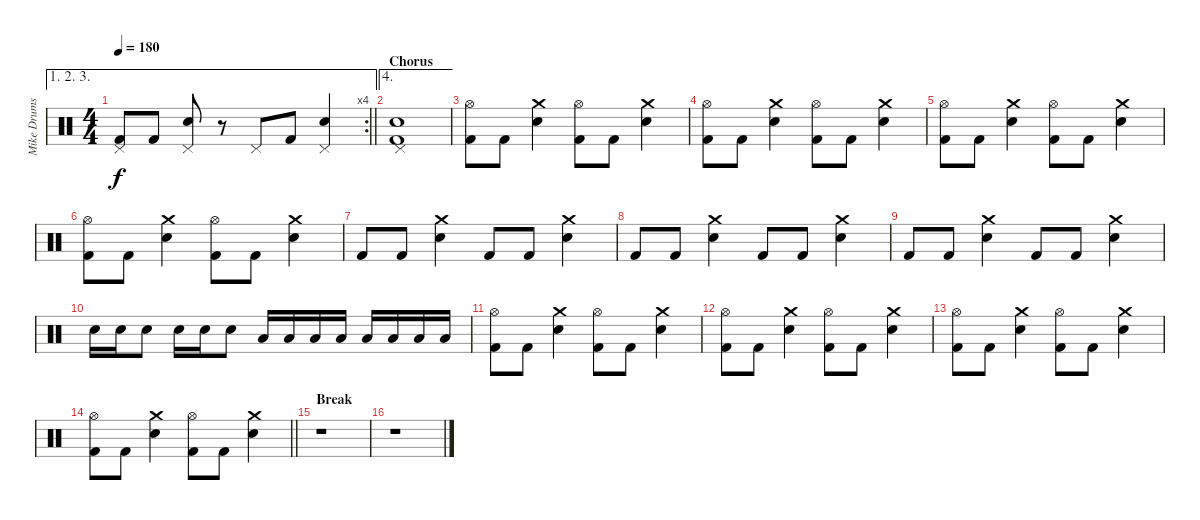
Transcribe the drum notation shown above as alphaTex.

\track ("Mike Drums" "Mike Drums") {instrument percussion}
\staff {score}
\articulation defaults
\ae (1 2 3)
\rc 4
\ts (4 4)
\tempo 180
\clef neutral
\barLineRight lightlight
\ks c
("Pedal Hi-Hat (hit)" "Kick (hit) 2").8{dy f} "Kick (hit) 2".8 ("Pedal Hi-Hat (hit)" "Snare (hit) 2").8 r.8 "Pedal Hi-Hat (hit)".8 "Kick (hit) 2".8 ("Pedal Hi-Hat (hit)" "Snare (hit) 2").4 |
\ae 4
\section ("" "Chorus")
("Pedal Hi-Hat (hit)" "Snare (hit) 2" "Kick (hit) 2").1 |
("Hi-Hat (open)" "Kick (hit) 2").8 "Kick (hit) 2".8 ("Crash medium (hit)" "Snare (hit) 2").4 ("Hi-Hat (open)" "Kick (hit) 2").8 "Kick (hit) 2".8 ("Crash medium (hit)" "Snare (hit) 2").4 |
("Hi-Hat (open)" "Kick (hit) 2").8 "Kick (hit) 2".8 ("Crash medium (hit)" "Snare (hit) 2").4 ("Hi-Hat (open)" "Kick (hit) 2").8 "Kick (hit) 2".8 ("Crash medium (hit)" "Snare (hit) 2").4 |
("Hi-Hat (open)" "Kick (hit) 2").8 "Kick (hit) 2".8 ("Crash medium (hit)" "Snare (hit) 2").4 ("Hi-Hat (open)" "Kick (hit) 2").8 "Kick (hit) 2".8 ("Crash medium (hit)" "Snare (hit) 2").4 |
("Hi-Hat (open)" "Kick (hit) 2").8 "Kick (hit) 2".8 ("Crash medium (hit)" "Snare (hit) 2").4 ("Hi-Hat (open)" "Kick (hit) 2").8 "Kick (hit) 2".8 ("Crash medium (hit)" "Snare (hit) 2").4 |
"Kick (hit) 2".8 "Kick (hit) 2".8 ("Crash medium (hit)" "Snare (hit) 2").4 "Kick (hit) 2".8 "Kick (hit) 2".8 ("Crash medium (hit)" "Snare (hit) 2").4 |
"Kick (hit) 2".8 "Kick (hit) 2".8 ("Crash medium (hit)" "Snare (hit) 2").4 "Kick (hit) 2".8 "Kick (hit) 2".8 ("Crash medium (hit)" "Snare (hit) 2").4 |
"Kick (hit) 2".8 "Kick (hit) 2".8 ("Crash medium (hit)" "Snare (hit) 2").4 "Kick (hit) 2".8 "Kick (hit) 2".8 ("Crash medium (hit)" "Snare (hit) 2").4 |
"Snare (hit) 2".16 "Snare (hit) 2".16 "Snare (hit) 2".8 "Snare (hit) 2".16 "Snare (hit) 2".16 "Snare (hit) 2".8 "Low Tom (hit)".16 "Low Tom (hit)".16 "Low Tom (hit)".16 "Low Tom (hit)".16 "Low Tom (hit)".16 "Low Tom (hit)".16 "Low Tom (hit)".16 "Low Tom (hit)".16 |
("Hi-Hat (open)" "Kick (hit) 2").8 "Kick (hit) 2".8 ("Crash medium (hit)" "Snare (hit) 2").4 ("Hi-Hat (open)" "Kick (hit) 2").8 "Kick (hit) 2".8 ("Crash medium (hit)" "Snare (hit) 2").4 |
("Hi-Hat (open)" "Kick (hit) 2").8 "Kick (hit) 2".8 ("Crash medium (hit)" "Snare (hit) 2").4 ("Hi-Hat (open)" "Kick (hit) 2").8 "Kick (hit) 2".8 ("Crash medium (hit)" "Snare (hit) 2").4 |
("Hi-Hat (open)" "Kick (hit) 2").8 "Kick (hit) 2".8 ("Crash medium (hit)" "Snare (hit) 2").4 ("Hi-Hat (open)" "Kick (hit) 2").8 "Kick (hit) 2".8 ("Crash medium (hit)" "Snare (hit) 2").4 |
\barLineRight lightlight
("Hi-Hat (open)" "Kick (hit) 2").8 "Kick (hit) 2".8 ("Crash medium (hit)" "Snare (hit) 2").4 ("Hi-Hat (open)" "Kick (hit) 2").8 "Kick (hit) 2".8 ("Crash medium (hit)" "Snare (hit) 2").4 |
\section ("" "Break")
r.1 |
r.1
